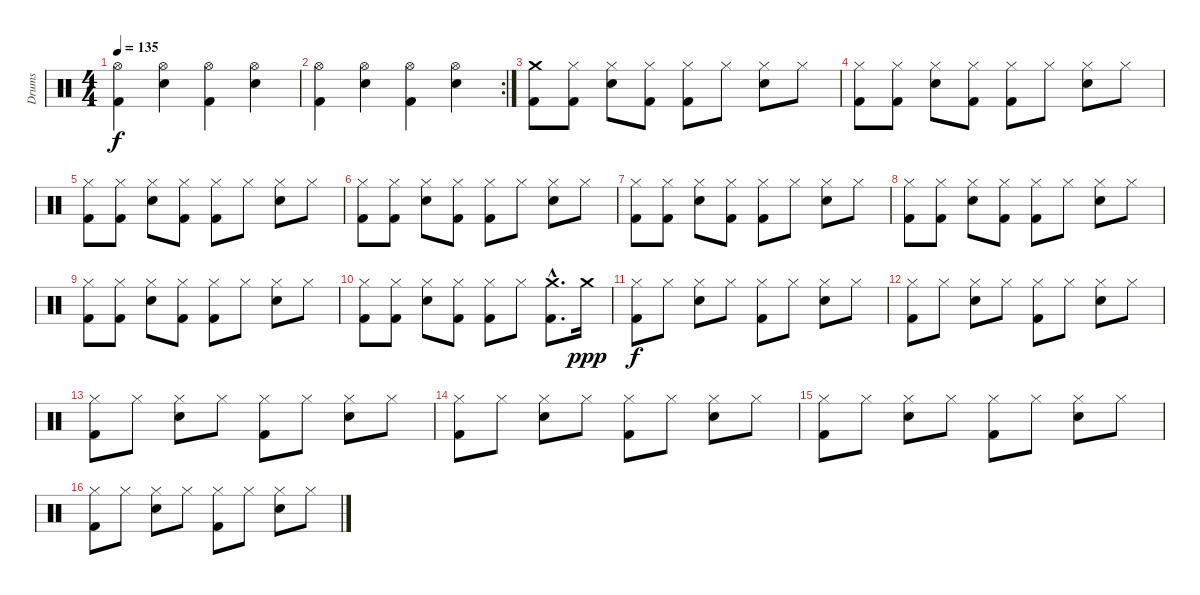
\track ("Drums" "Drums") {instrument percussion}
\staff {score}
\articulation defaults
\ts (4 4)
\tempo 135
\clef neutral
\ks c
("Hi-Hat (open)" "Kick (hit) 2").4{dy f} ("Hi-Hat (open)" "Electric Snare (hit)").4 ("Hi-Hat (open)" "Kick (hit) 2").4 ("Hi-Hat (open)" "Electric Snare (hit)").4 |
\rc 2
("Hi-Hat (open)" "Kick (hit) 2").4 ("Hi-Hat (open)" "Electric Snare (hit)").4 ("Hi-Hat (open)" "Kick (hit) 2").4 ("Hi-Hat (open)" "Electric Snare (hit)").4 |
("Crash medium (hit)" "Kick (hit) 2").8 ("Hi-Hat (closed)" "Kick (hit) 2").8 ("Hi-Hat (closed)" "Electric Snare (hit)").8 ("Hi-Hat (closed)" "Kick (hit) 2").8 ("Hi-Hat (closed)" "Kick (hit) 2").8 "Hi-Hat (closed)".8 ("Hi-Hat (closed)" "Electric Snare (hit)").8 "Hi-Hat (closed)".8 |
("Hi-Hat (closed)" "Kick (hit) 2").8 ("Hi-Hat (closed)" "Kick (hit) 2").8 ("Hi-Hat (closed)" "Electric Snare (hit)").8 ("Hi-Hat (closed)" "Kick (hit) 2").8 ("Hi-Hat (closed)" "Kick (hit) 2").8 "Hi-Hat (closed)".8 ("Hi-Hat (closed)" "Electric Snare (hit)").8 "Hi-Hat (closed)".8 |
("Hi-Hat (closed)" "Kick (hit) 2").8 ("Hi-Hat (closed)" "Kick (hit) 2").8 ("Hi-Hat (closed)" "Electric Snare (hit)").8 ("Hi-Hat (closed)" "Kick (hit) 2").8 ("Hi-Hat (closed)" "Kick (hit) 2").8 "Hi-Hat (closed)".8 ("Hi-Hat (closed)" "Electric Snare (hit)").8 "Hi-Hat (closed)".8 |
("Hi-Hat (closed)" "Kick (hit) 2").8 ("Hi-Hat (closed)" "Kick (hit) 2").8 ("Hi-Hat (closed)" "Electric Snare (hit)").8 ("Hi-Hat (closed)" "Kick (hit) 2").8 ("Hi-Hat (closed)" "Kick (hit) 2").8 "Hi-Hat (closed)".8 ("Hi-Hat (closed)" "Electric Snare (hit)").8 "Hi-Hat (closed)".8 |
("Hi-Hat (closed)" "Kick (hit) 2").8 ("Hi-Hat (closed)" "Kick (hit) 2").8 ("Hi-Hat (closed)" "Electric Snare (hit)").8 ("Hi-Hat (closed)" "Kick (hit) 2").8 ("Hi-Hat (closed)" "Kick (hit) 2").8 "Hi-Hat (closed)".8 ("Hi-Hat (closed)" "Electric Snare (hit)").8 "Hi-Hat (closed)".8 |
("Hi-Hat (closed)" "Kick (hit) 2").8 ("Hi-Hat (closed)" "Kick (hit) 2").8 ("Hi-Hat (closed)" "Electric Snare (hit)").8 ("Hi-Hat (closed)" "Kick (hit) 2").8 ("Hi-Hat (closed)" "Kick (hit) 2").8 "Hi-Hat (closed)".8 ("Hi-Hat (closed)" "Electric Snare (hit)").8 "Hi-Hat (closed)".8 |
("Hi-Hat (closed)" "Kick (hit) 2").8 ("Hi-Hat (closed)" "Kick (hit) 2").8 ("Hi-Hat (closed)" "Electric Snare (hit)").8 ("Hi-Hat (closed)" "Kick (hit) 2").8 ("Hi-Hat (closed)" "Kick (hit) 2").8 "Hi-Hat (closed)".8 ("Hi-Hat (closed)" "Electric Snare (hit)").8 "Hi-Hat (closed)".8 |
("Hi-Hat (closed)" "Kick (hit) 2").8 ("Hi-Hat (closed)" "Kick (hit) 2").8 ("Hi-Hat (closed)" "Electric Snare (hit)").8 ("Hi-Hat (closed)" "Kick (hit) 2").8 ("Hi-Hat (closed)" "Kick (hit) 2").8 "Hi-Hat (closed)".8 ("Crash medium (hit)"{hac} "Kick (hit) 2"{hac}).8{d} "Crash medium (hit)".16{dy ppp} |
("Hi-Hat (closed)" "Kick (hit) 2").8{dy f} "Hi-Hat (closed)".8 ("Hi-Hat (closed)" "Electric Snare (hit)").8 "Hi-Hat (closed)".8 ("Hi-Hat (closed)" "Kick (hit) 2").8 "Hi-Hat (closed)".8 ("Hi-Hat (closed)" "Electric Snare (hit)").8 "Hi-Hat (closed)".8 |
("Hi-Hat (closed)" "Kick (hit) 2").8 "Hi-Hat (closed)".8 ("Hi-Hat (closed)" "Electric Snare (hit)").8 "Hi-Hat (closed)".8 ("Hi-Hat (closed)" "Kick (hit) 2").8 "Hi-Hat (closed)".8 ("Hi-Hat (closed)" "Electric Snare (hit)").8 "Hi-Hat (closed)".8 |
("Hi-Hat (closed)" "Kick (hit) 2").8 "Hi-Hat (closed)".8 ("Hi-Hat (closed)" "Electric Snare (hit)").8 "Hi-Hat (closed)".8 ("Hi-Hat (closed)" "Kick (hit) 2").8 "Hi-Hat (closed)".8 ("Hi-Hat (closed)" "Electric Snare (hit)").8 "Hi-Hat (closed)".8 |
("Hi-Hat (closed)" "Kick (hit) 2").8 "Hi-Hat (closed)".8 ("Hi-Hat (closed)" "Electric Snare (hit)").8 "Hi-Hat (closed)".8 ("Hi-Hat (closed)" "Kick (hit) 2").8 "Hi-Hat (closed)".8 ("Hi-Hat (closed)" "Electric Snare (hit)").8 "Hi-Hat (closed)".8 |
("Hi-Hat (closed)" "Kick (hit) 2").8 "Hi-Hat (closed)".8 ("Hi-Hat (closed)" "Electric Snare (hit)").8 "Hi-Hat (closed)".8 ("Hi-Hat (closed)" "Kick (hit) 2").8 "Hi-Hat (closed)".8 ("Hi-Hat (closed)" "Electric Snare (hit)").8 "Hi-Hat (closed)".8 |
("Hi-Hat (closed)" "Kick (hit) 2").8 "Hi-Hat (closed)".8 ("Hi-Hat (closed)" "Electric Snare (hit)").8 "Hi-Hat (closed)".8 ("Hi-Hat (closed)" "Kick (hit) 2").8 "Hi-Hat (closed)".8 ("Hi-Hat (closed)" "Electric Snare (hit)").8 "Hi-Hat (closed)".8
